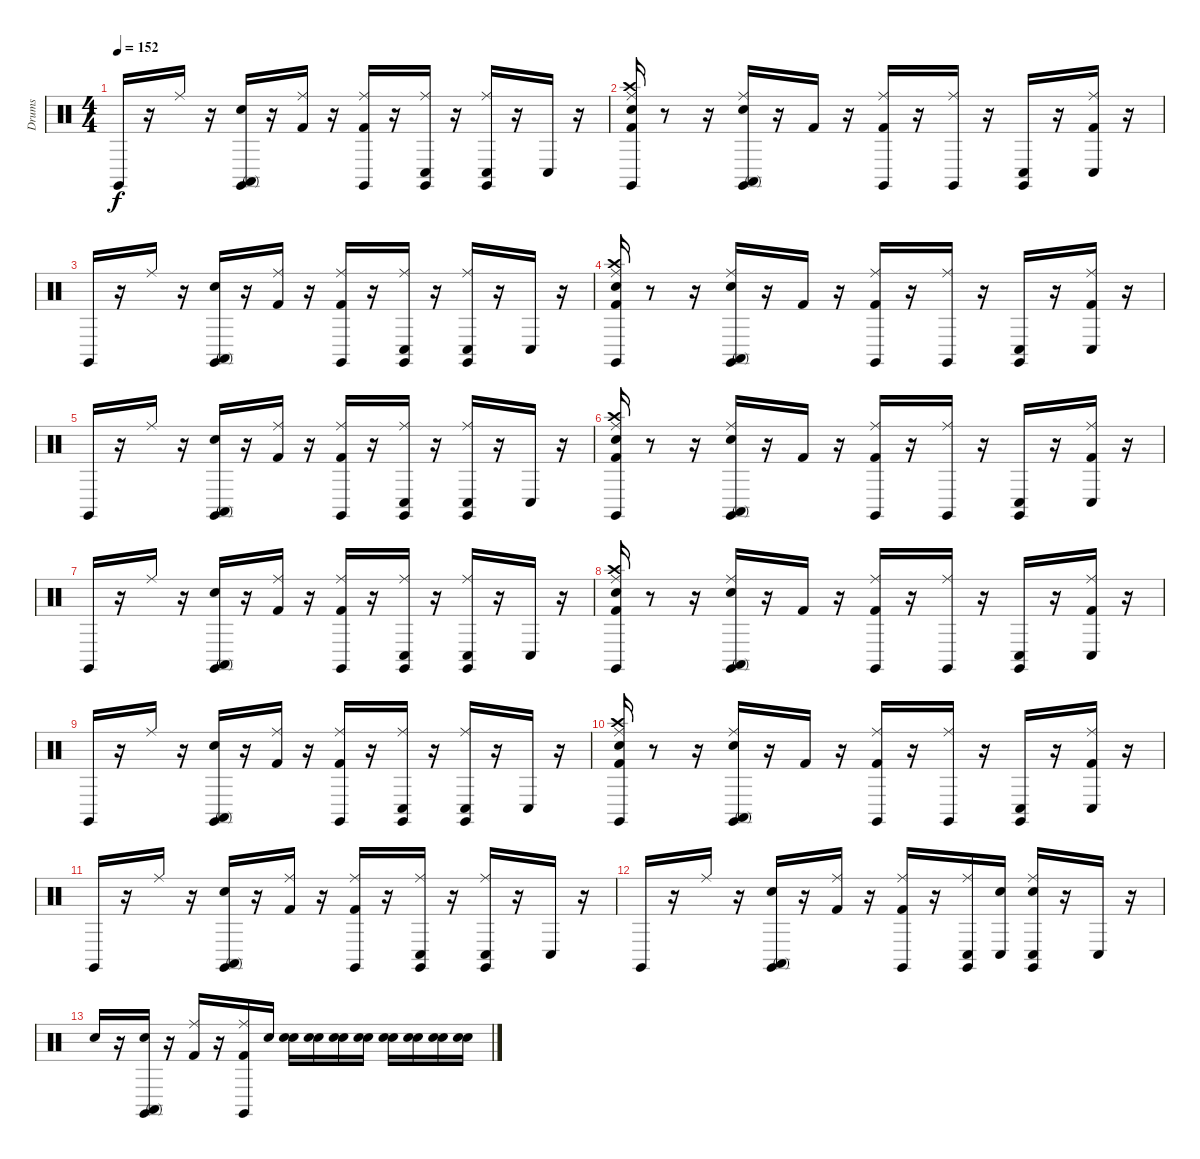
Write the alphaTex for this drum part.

\track ("Drums" "Drums") {instrument percussion}
\staff {score}
\articulation defaults
\ts (4 4)
\tempo 152
\clef neutral
\ks c "Claves (hit)".16{dy f}
r.16 "Ride (middle)".16 r.16 ("Snare (hit) 2" "Conga high (mute)" "Claves (hit)").16 r.16 ("Kick (hit) 2" "Ride (middle)").16 r.16 ("Kick (hit) 2" "Ride (middle)" "Claves (hit)").16 r.16 ("Ride (middle)" "Conga low (hit)" "Claves (hit)").16 r.16 ("Ride (middle)" "Conga low (hit)" "Claves (hit)").16 r.16 "Conga low (hit)".16 r.16 |
("Snare (hit)" "Kick (hit) 2" "Crash high (hit)" "Ride (middle)" "Claves (hit)").16 r.8 r.16 ("Snare (hit) 2" "Ride (middle)" "Conga high (mute)" "Claves (hit)").16 r.16 "Kick (hit) 2".16 r.16 ("Kick (hit) 2" "Ride (middle)" "Claves (hit)").16 r.16 ("Ride (middle)" "Claves (hit)").16 r.16 ("Conga low (hit)" "Claves (hit)").16 r.16 ("Kick (hit) 2" "Ride (middle)" "Conga low (hit)").16 r.16 |
"Claves (hit)".16 r.16 "Ride (middle)".16 r.16 ("Snare (hit) 2" "Conga high (mute)" "Claves (hit)").16 r.16 ("Kick (hit) 2" "Ride (middle)").16 r.16 ("Kick (hit) 2" "Ride (middle)" "Claves (hit)").16 r.16 ("Ride (middle)" "Conga low (hit)" "Claves (hit)").16 r.16 ("Ride (middle)" "Conga low (hit)" "Claves (hit)").16 r.16 "Conga low (hit)".16 r.16 |
("Snare (hit)" "Kick (hit) 2" "Crash high (hit)" "Ride (middle)" "Claves (hit)").16 r.8 r.16 ("Snare (hit) 2" "Ride (middle)" "Conga high (mute)" "Claves (hit)").16 r.16 "Kick (hit) 2".16 r.16 ("Kick (hit) 2" "Ride (middle)" "Claves (hit)").16 r.16 ("Ride (middle)" "Claves (hit)").16 r.16 ("Conga low (hit)" "Claves (hit)").16 r.16 ("Kick (hit) 2" "Ride (middle)" "Conga low (hit)").16 r.16 |
"Claves (hit)".16 r.16 "Ride (middle)".16 r.16 ("Snare (hit) 2" "Conga high (mute)" "Claves (hit)").16 r.16 ("Kick (hit) 2" "Ride (middle)").16 r.16 ("Kick (hit) 2" "Ride (middle)" "Claves (hit)").16 r.16 ("Ride (middle)" "Conga low (hit)" "Claves (hit)").16 r.16 ("Ride (middle)" "Conga low (hit)" "Claves (hit)").16 r.16 "Conga low (hit)".16 r.16 |
("Snare (hit)" "Kick (hit) 2" "Crash high (hit)" "Ride (middle)" "Claves (hit)").16 r.8 r.16 ("Snare (hit) 2" "Ride (middle)" "Conga high (mute)" "Claves (hit)").16 r.16 "Kick (hit) 2".16 r.16 ("Kick (hit) 2" "Ride (middle)" "Claves (hit)").16 r.16 ("Ride (middle)" "Claves (hit)").16 r.16 ("Conga low (hit)" "Claves (hit)").16 r.16 ("Kick (hit) 2" "Ride (middle)" "Conga low (hit)").16 r.16 |
"Claves (hit)".16 r.16 "Ride (middle)".16 r.16 ("Snare (hit) 2" "Conga high (mute)" "Claves (hit)").16 r.16 ("Kick (hit) 2" "Ride (middle)").16 r.16 ("Kick (hit) 2" "Ride (middle)" "Claves (hit)").16 r.16 ("Ride (middle)" "Conga low (hit)" "Claves (hit)").16 r.16 ("Ride (middle)" "Conga low (hit)" "Claves (hit)").16 r.16 "Conga low (hit)".16 r.16 |
("Snare (hit)" "Kick (hit) 2" "Crash high (hit)" "Ride (middle)" "Claves (hit)").16 r.8 r.16 ("Snare (hit) 2" "Ride (middle)" "Conga high (mute)" "Claves (hit)").16 r.16 "Kick (hit) 2".16 r.16 ("Kick (hit) 2" "Ride (middle)" "Claves (hit)").16 r.16 ("Ride (middle)" "Claves (hit)").16 r.16 ("Conga low (hit)" "Claves (hit)").16 r.16 ("Kick (hit) 2" "Ride (middle)" "Conga low (hit)").16 r.16 |
"Claves (hit)".16 r.16 "Ride (middle)".16 r.16 ("Snare (hit) 2" "Conga high (mute)" "Claves (hit)").16 r.16 ("Kick (hit) 2" "Ride (middle)").16 r.16 ("Kick (hit) 2" "Ride (middle)" "Claves (hit)").16 r.16 ("Ride (middle)" "Conga low (hit)" "Claves (hit)").16 r.16 ("Ride (middle)" "Conga low (hit)" "Claves (hit)").16 r.16 "Conga low (hit)".16 r.16 |
("Snare (hit)" "Kick (hit) 2" "Crash high (hit)" "Ride (middle)" "Claves (hit)").16 r.8 r.16 ("Snare (hit) 2" "Ride (middle)" "Conga high (mute)" "Claves (hit)").16 r.16 "Kick (hit) 2".16 r.16 ("Kick (hit) 2" "Ride (middle)" "Claves (hit)").16 r.16 ("Ride (middle)" "Claves (hit)").16 r.16 ("Conga low (hit)" "Claves (hit)").16 r.16 ("Kick (hit) 2" "Ride (middle)" "Conga low (hit)").16 r.16 |
"Claves (hit)".16 r.16 "Ride (middle)".16 r.16 ("Snare (hit) 2" "Conga high (mute)" "Claves (hit)").16 r.16 ("Kick (hit) 2" "Ride (middle)").16 r.16 ("Kick (hit) 2" "Ride (middle)" "Claves (hit)").16 r.16 ("Ride (middle)" "Conga low (hit)" "Claves (hit)").16 r.16 ("Ride (middle)" "Conga low (hit)" "Claves (hit)").16 r.16 "Conga low (hit)".16 r.16 |
"Claves (hit)".16 r.16 "Ride (middle)".16 r.16 ("Snare (hit) 2" "Conga high (mute)" "Claves (hit)").16 r.16 ("Kick (hit) 2" "Ride (middle)").16 r.16 ("Kick (hit) 2" "Ride (middle)" "Claves (hit)").16 r.16 ("Ride (middle)" "Conga low (hit)" "Claves (hit)").16 ("Snare (hit)" "Conga low (hit)").16 ("Snare (hit)" "Ride (middle)" "Conga low (hit)" "Claves (hit)").16 r.16 "Conga low (hit)".16 r.16 |
"Snare (hit) 2".16 r.16 ("Snare (hit) 2" "Conga high (mute)" "Claves (hit)").16 r.16 ("Kick (hit) 2" "Ride (middle)").16 r.16 ("Kick (hit) 2" "Ride (middle)" "Claves (hit)").16 "Snare (hit) 2".16 ("Snare (hit)" "Snare (hit) 2").16 ("Snare (hit)" "Snare (hit) 2").16 ("Snare (hit)" "Snare (hit) 2").16 ("Snare (hit)" "Snare (hit) 2").16 ("Snare (hit)" "Snare (hit) 2").16 ("Snare (hit)" "Snare (hit) 2").16 ("Snare (hit)" "Snare (hit) 2").16 ("Snare (hit)" "Snare (hit) 2").16
